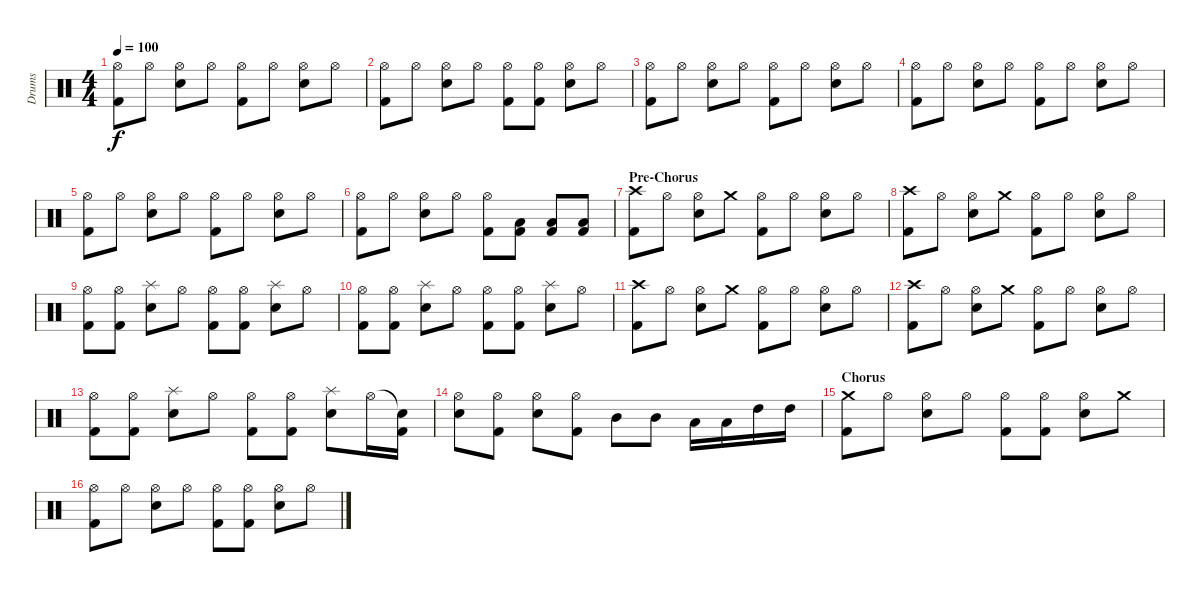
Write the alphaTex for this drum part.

\track ("Drums" "Drums") {instrument percussion}
\staff {score}
\articulation defaults
\ts (4 4)
\tempo 100
\clef neutral
\ks c
("Hi-Hat (open)" "Kick (hit) 2").8{dy f} "Hi-Hat (open)".8 ("Hi-Hat (open)" "Electric Snare (hit)").8 "Hi-Hat (open)".8 ("Hi-Hat (open)" "Kick (hit) 2").8 "Hi-Hat (open)".8 ("Hi-Hat (open)" "Electric Snare (hit)").8 "Hi-Hat (open)".8 |
("Hi-Hat (open)" "Kick (hit) 2").8 "Hi-Hat (open)".8 ("Hi-Hat (open)" "Electric Snare (hit)").8 "Hi-Hat (open)".8 ("Hi-Hat (open)" "Kick (hit) 2").8 ("Hi-Hat (open)" "Kick (hit) 2").8 ("Hi-Hat (open)" "Electric Snare (hit)").8 "Hi-Hat (open)".8 |
("Hi-Hat (open)" "Kick (hit) 2").8 "Hi-Hat (open)".8 ("Hi-Hat (open)" "Electric Snare (hit)").8 "Hi-Hat (open)".8 ("Hi-Hat (open)" "Kick (hit) 2").8 "Hi-Hat (open)".8 ("Hi-Hat (open)" "Electric Snare (hit)").8 "Hi-Hat (open)".8 |
("Hi-Hat (open)" "Kick (hit) 2").8 "Hi-Hat (open)".8 ("Hi-Hat (open)" "Electric Snare (hit)").8 "Hi-Hat (open)".8 ("Hi-Hat (open)" "Kick (hit) 2").8 "Hi-Hat (open)".8 ("Hi-Hat (open)" "Electric Snare (hit)").8 "Hi-Hat (open)".8 |
("Hi-Hat (open)" "Kick (hit) 2").8 "Hi-Hat (open)".8 ("Hi-Hat (open)" "Electric Snare (hit)").8 "Hi-Hat (open)".8 ("Hi-Hat (open)" "Kick (hit) 2").8 "Hi-Hat (open)".8 ("Hi-Hat (open)" "Electric Snare (hit)").8 "Hi-Hat (open)".8 |
("Hi-Hat (open)" "Kick (hit) 2").8 "Hi-Hat (open)".8 ("Hi-Hat (open)" "Electric Snare (hit)").8 "Hi-Hat (open)".8 ("Hi-Hat (open)" "Kick (hit) 2").8 ("Low Floor Tom (hit)" "Kick (hit) 2").8 ("Low Floor Tom (hit)" "Kick (hit) 2").8 ("Low Floor Tom (hit)" "Kick (hit) 2").8 |
\section ("" "Pre-Chorus")
("Crash high (hit)" "Kick (hit) 2").8 "Hi-Hat (open)".8 ("Hi-Hat (open)" "Electric Snare (hit)").8 "Crash medium (hit)".8 ("Hi-Hat (open)" "Kick (hit) 2").8 "Hi-Hat (open)".8 ("Hi-Hat (open)" "Electric Snare (hit)").8 "Hi-Hat (open)".8 |
("Crash high (hit)" "Kick (hit) 2").8 "Hi-Hat (open)".8 ("Hi-Hat (open)" "Electric Snare (hit)").8 "Crash medium (hit)".8 ("Hi-Hat (open)" "Kick (hit) 2").8 "Hi-Hat (open)".8 ("Hi-Hat (open)" "Electric Snare (hit)").8 "Hi-Hat (open)".8 |
("Hi-Hat (open)" "Kick (hit) 2").8 ("Hi-Hat (open)" "Kick (hit) 2").8 ("Splash (hit)" "Electric Snare (hit)").8 "Hi-Hat (open)".8 ("Hi-Hat (open)" "Kick (hit) 2").8 ("Hi-Hat (open)" "Kick (hit) 2").8 ("Splash (hit)" "Electric Snare (hit)").8 "Hi-Hat (open)".8 |
("Hi-Hat (open)" "Kick (hit) 2").8 ("Hi-Hat (open)" "Kick (hit) 2").8 ("Splash (hit)" "Electric Snare (hit)").8 "Hi-Hat (open)".8 ("Hi-Hat (open)" "Kick (hit) 2").8 ("Hi-Hat (open)" "Kick (hit) 2").8 ("Splash (hit)" "Electric Snare (hit)").8 "Hi-Hat (open)".8 |
("Crash high (hit)" "Kick (hit) 2").8 "Hi-Hat (open)".8 ("Hi-Hat (open)" "Electric Snare (hit)").8 "Crash medium (hit)".8 ("Hi-Hat (open)" "Kick (hit) 2").8 "Hi-Hat (open)".8 ("Hi-Hat (open)" "Electric Snare (hit)").8 "Hi-Hat (open)".8 |
("Crash high (hit)" "Kick (hit) 2").8 "Hi-Hat (open)".8 ("Hi-Hat (open)" "Electric Snare (hit)").8 "Crash medium (hit)".8 ("Hi-Hat (open)" "Kick (hit) 2").8 "Hi-Hat (open)".8 ("Hi-Hat (open)" "Electric Snare (hit)").8 "Hi-Hat (open)".8 |
("Hi-Hat (open)" "Kick (hit) 2").8 ("Hi-Hat (open)" "Kick (hit) 2").8 ("Splash (hit)" "Electric Snare (hit)").8 "Hi-Hat (open)".8 ("Hi-Hat (open)" "Kick (hit) 2").8 ("Hi-Hat (open)" "Kick (hit) 2").8 ("Splash (hit)" "Electric Snare (hit)").8 "Hi-Hat (open)".16 ("Snare (hit)"{t} "Kick (hit) 2").16 |
("Hi-Hat (open)" "Electric Snare (hit)").8 ("Hi-Hat (open)" "Kick (hit) 2").8 ("Hi-Hat (open)" "Electric Snare (hit)").8 ("Hi-Hat (open)" "Kick (hit) 2").8 "Mid Tom (hit)".8 "Mid Tom (hit)".8 "Low Tom (hit)".16 "Low Tom (hit)".16 "High Tom (hit)".16 "High Tom (hit)".16 |
\section ("" "Chorus")
("Crash medium (hit)" "Kick (hit) 2").8 "Hi-Hat (open)".8 ("Hi-Hat (open)" "Electric Snare (hit)").8 "Hi-Hat (open)".8 ("Hi-Hat (open)" "Kick (hit) 2").8 ("Hi-Hat (open)" "Kick (hit) 2").8 ("Hi-Hat (open)" "Electric Snare (hit)").8 "Crash medium (hit)".8 |
("Hi-Hat (open)" "Kick (hit) 2").8 "Hi-Hat (open)".8 ("Hi-Hat (open)" "Electric Snare (hit)").8 "Hi-Hat (open)".8 ("Hi-Hat (open)" "Kick (hit) 2").8 ("Hi-Hat (open)" "Kick (hit) 2").8 ("Hi-Hat (open)" "Electric Snare (hit)").8 "Hi-Hat (open)".8
